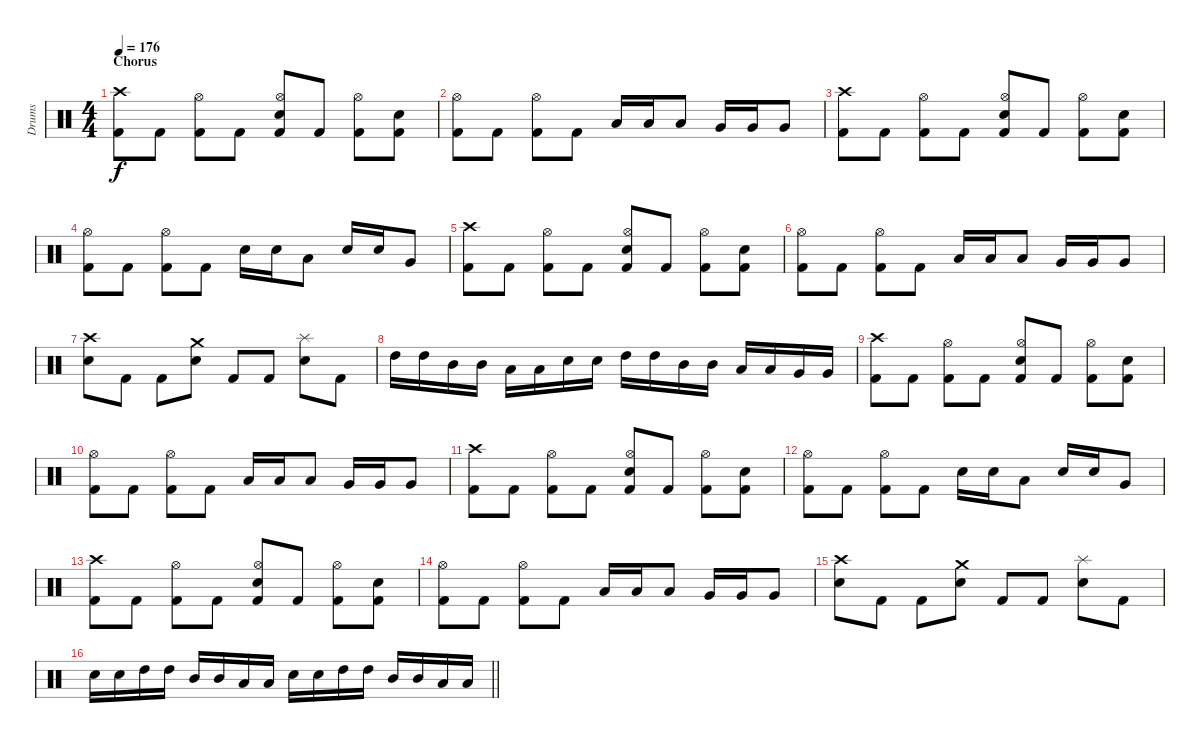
\track ("Drums" "Drums") {instrument percussion}
\staff {score}
\articulation defaults
\ts (4 4)
\section ("" "Chorus")
\tempo 176
\clef neutral
\ks c
("Crash high (hit)" "Kick (hit) 2").8{dy f} "Kick (hit) 2".8 ("Hi-Hat (open)" "Kick (hit) 2").8 "Kick (hit) 2".8 ("Hi-Hat (open)" "Snare (hit) 2" "Kick (hit) 2").8 "Kick (hit) 2".8 ("Hi-Hat (open)" "Kick (hit) 2").8 ("Snare (hit) 2" "Kick (hit) 2").8 |
("Hi-Hat (open)" "Kick (hit) 2").8 "Kick (hit) 2".8 ("Hi-Hat (open)" "Kick (hit) 2").8 "Kick (hit) 2".8 "Low Tom (hit)".16 "Low Tom (hit)".16 "Low Tom (hit)".8 "Very Low Tom (hit)".16 "Very Low Tom (hit)".16 "Very Low Tom (hit)".8 |
("Crash high (hit)" "Kick (hit) 2").8 "Kick (hit) 2".8 ("Hi-Hat (open)" "Kick (hit) 2").8 "Kick (hit) 2".8 ("Hi-Hat (open)" "Snare (hit) 2" "Kick (hit) 2").8 "Kick (hit) 2".8 ("Hi-Hat (open)" "Kick (hit) 2").8 ("Snare (hit) 2" "Kick (hit) 2").8 |
("Hi-Hat (open)" "Kick (hit) 2").8 "Kick (hit) 2".8 ("Hi-Hat (open)" "Kick (hit) 2").8 "Kick (hit) 2".8 "Snare (hit) 2".16 "Snare (hit) 2".16 "Low Tom (hit)".8 "Snare (hit) 2".16 "Snare (hit) 2".16 "Very Low Tom (hit)".8 |
("Crash high (hit)" "Kick (hit) 2").8 "Kick (hit) 2".8 ("Hi-Hat (open)" "Kick (hit) 2").8 "Kick (hit) 2".8 ("Hi-Hat (open)" "Snare (hit) 2" "Kick (hit) 2").8 "Kick (hit) 2".8 ("Hi-Hat (open)" "Kick (hit) 2").8 ("Snare (hit) 2" "Kick (hit) 2").8 |
("Hi-Hat (open)" "Kick (hit) 2").8 "Kick (hit) 2".8 ("Hi-Hat (open)" "Kick (hit) 2").8 "Kick (hit) 2".8 "Low Tom (hit)".16 "Low Tom (hit)".16 "Low Tom (hit)".8 "Very Low Tom (hit)".16 "Very Low Tom (hit)".16 "Very Low Tom (hit)".8 |
("Crash high (hit)" "Snare (hit) 2").8 "Kick (hit) 2".8 "Kick (hit) 2".8 ("Crash medium (hit)" "Snare (hit) 2").8 "Kick (hit) 2".8 "Kick (hit) 2".8 ("Splash (hit)" "Snare (hit) 2").8 "Kick (hit) 2".8 |
"High Tom (hit)".16 "High Tom (hit)".16 "Mid Tom (hit)".16 "Mid Tom (hit)".16 "Low Tom (hit)".16 "Low Tom (hit)".16 "Snare (hit) 2".16 "Snare (hit) 2".16 "High Tom (hit)".16 "High Tom (hit)".16 "Mid Tom (hit)".16 "Mid Tom (hit)".16 "Low Tom (hit)".16 "Low Tom (hit)".16 "Very Low Tom (hit)".16 "Very Low Tom (hit)".16 |
("Crash high (hit)" "Kick (hit) 2").8 "Kick (hit) 2".8 ("Hi-Hat (open)" "Kick (hit) 2").8 "Kick (hit) 2".8 ("Hi-Hat (open)" "Snare (hit) 2" "Kick (hit) 2").8 "Kick (hit) 2".8 ("Hi-Hat (open)" "Kick (hit) 2").8 ("Snare (hit) 2" "Kick (hit) 2").8 |
("Hi-Hat (open)" "Kick (hit) 2").8 "Kick (hit) 2".8 ("Hi-Hat (open)" "Kick (hit) 2").8 "Kick (hit) 2".8 "Low Tom (hit)".16 "Low Tom (hit)".16 "Low Tom (hit)".8 "Very Low Tom (hit)".16 "Very Low Tom (hit)".16 "Very Low Tom (hit)".8 |
("Crash high (hit)" "Kick (hit) 2").8 "Kick (hit) 2".8 ("Hi-Hat (open)" "Kick (hit) 2").8 "Kick (hit) 2".8 ("Hi-Hat (open)" "Snare (hit) 2" "Kick (hit) 2").8 "Kick (hit) 2".8 ("Hi-Hat (open)" "Kick (hit) 2").8 ("Snare (hit) 2" "Kick (hit) 2").8 |
("Hi-Hat (open)" "Kick (hit) 2").8 "Kick (hit) 2".8 ("Hi-Hat (open)" "Kick (hit) 2").8 "Kick (hit) 2".8 "Snare (hit) 2".16 "Snare (hit) 2".16 "Low Tom (hit)".8 "Snare (hit) 2".16 "Snare (hit) 2".16 "Very Low Tom (hit)".8 |
("Crash high (hit)" "Kick (hit) 2").8 "Kick (hit) 2".8 ("Hi-Hat (open)" "Kick (hit) 2").8 "Kick (hit) 2".8 ("Hi-Hat (open)" "Snare (hit) 2" "Kick (hit) 2").8 "Kick (hit) 2".8 ("Hi-Hat (open)" "Kick (hit) 2").8 ("Snare (hit) 2" "Kick (hit) 2").8 |
("Hi-Hat (open)" "Kick (hit) 2").8 "Kick (hit) 2".8 ("Hi-Hat (open)" "Kick (hit) 2").8 "Kick (hit) 2".8 "Low Tom (hit)".16 "Low Tom (hit)".16 "Low Tom (hit)".8 "Very Low Tom (hit)".16 "Very Low Tom (hit)".16 "Very Low Tom (hit)".8 |
("Crash high (hit)" "Snare (hit) 2").8 "Kick (hit) 2".8 "Kick (hit) 2".8 ("Crash medium (hit)" "Snare (hit) 2").8 "Kick (hit) 2".8 "Kick (hit) 2".8 ("Splash (hit)" "Snare (hit) 2").8 "Kick (hit) 2".8 |
\barLineRight lightlight "Snare (hit) 2".16 "Snare (hit) 2".16 "High Tom (hit)".16 "High Tom (hit)".16 "Mid Tom (hit)".16 "Mid Tom (hit)".16 "Low Tom (hit)".16 "Low Tom (hit)".16 "Snare (hit) 2".16 "Snare (hit) 2".16 "High Tom (hit)".16 "High Tom (hit)".16 "Mid Tom (hit)".16 "Mid Tom (hit)".16 "Low Tom (hit)".16 "Low Tom (hit)".16
